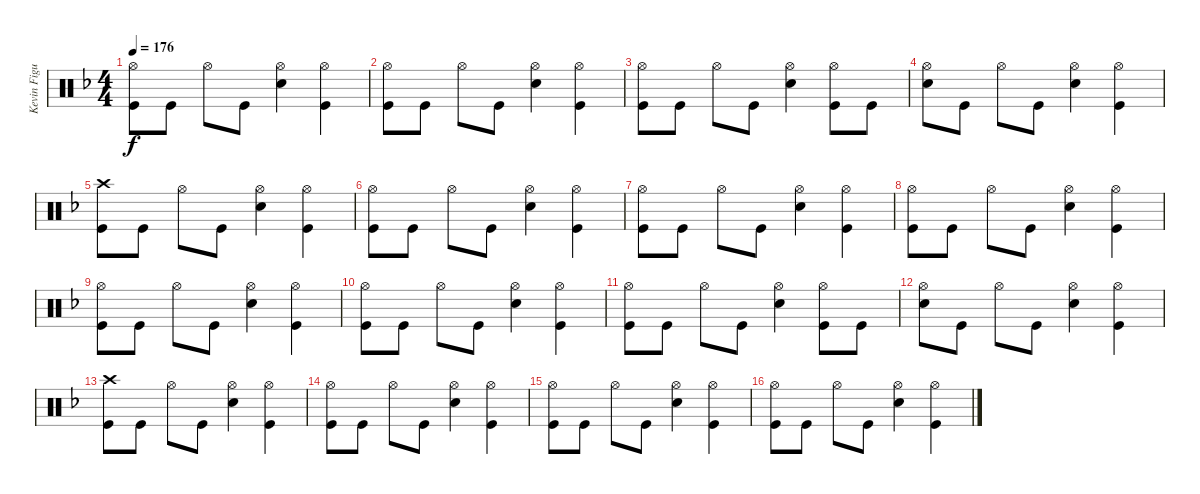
\track ("Kevin Figueiredo - Drums" "Kevin Figu") {instrument percussion}
\staff {score}
\articulation defaults
\ts (4 4)
\tempo 176
\clef neutral
\ks f
("Hi-Hat (open)" "Kick (hit)").8{dy f} "Kick (hit)".8 "Hi-Hat (open)".8 "Kick (hit)".8 ("Hi-Hat (open)" "Snare (hit) 2").4 ("Hi-Hat (open)" "Kick (hit)").4 |
("Hi-Hat (open)" "Kick (hit)").8 "Kick (hit)".8 "Hi-Hat (open)".8 "Kick (hit)".8 ("Hi-Hat (open)" "Snare (hit) 2").4 ("Hi-Hat (open)" "Kick (hit)").4 |
("Hi-Hat (open)" "Kick (hit)").8 "Kick (hit)".8 "Hi-Hat (open)".8 "Kick (hit)".8 ("Hi-Hat (open)" "Snare (hit) 2").4 ("Hi-Hat (open)" "Kick (hit)").8 "Kick (hit)".8 |
("Hi-Hat (open)" "Snare (hit) 2").8 "Kick (hit)".8 "Hi-Hat (open)".8 "Kick (hit)".8 ("Hi-Hat (open)" "Snare (hit) 2").4 ("Hi-Hat (open)" "Kick (hit)").4 |
("Crash high (hit)" "Kick (hit)").8 "Kick (hit)".8 "Hi-Hat (open)".8 "Kick (hit)".8 ("Hi-Hat (open)" "Snare (hit) 2").4 ("Hi-Hat (open)" "Kick (hit)").4 |
("Hi-Hat (open)" "Kick (hit)").8 "Kick (hit)".8 "Hi-Hat (open)".8 "Kick (hit)".8 ("Hi-Hat (open)" "Snare (hit) 2").4 ("Hi-Hat (open)" "Kick (hit)").4 |
("Hi-Hat (open)" "Kick (hit)").8 "Kick (hit)".8 "Hi-Hat (open)".8 "Kick (hit)".8 ("Hi-Hat (open)" "Snare (hit) 2").4 ("Hi-Hat (open)" "Kick (hit)").4 |
("Hi-Hat (open)" "Kick (hit)").8 "Kick (hit)".8 "Hi-Hat (open)".8 "Kick (hit)".8 ("Hi-Hat (open)" "Snare (hit) 2").4 ("Hi-Hat (open)" "Kick (hit)").4 |
("Hi-Hat (open)" "Kick (hit)").8 "Kick (hit)".8 "Hi-Hat (open)".8 "Kick (hit)".8 ("Hi-Hat (open)" "Snare (hit) 2").4 ("Hi-Hat (open)" "Kick (hit)").4 |
("Hi-Hat (open)" "Kick (hit)").8 "Kick (hit)".8 "Hi-Hat (open)".8 "Kick (hit)".8 ("Hi-Hat (open)" "Snare (hit) 2").4 ("Hi-Hat (open)" "Kick (hit)").4 |
("Hi-Hat (open)" "Kick (hit)").8 "Kick (hit)".8 "Hi-Hat (open)".8 "Kick (hit)".8 ("Hi-Hat (open)" "Snare (hit) 2").4 ("Hi-Hat (open)" "Kick (hit)").8 "Kick (hit)".8 |
("Hi-Hat (open)" "Snare (hit) 2").8 "Kick (hit)".8 "Hi-Hat (open)".8 "Kick (hit)".8 ("Hi-Hat (open)" "Snare (hit) 2").4 ("Hi-Hat (open)" "Kick (hit)").4 |
("Crash high (hit)" "Kick (hit)").8 "Kick (hit)".8 "Hi-Hat (open)".8 "Kick (hit)".8 ("Hi-Hat (open)" "Snare (hit) 2").4 ("Hi-Hat (open)" "Kick (hit)").4 |
("Hi-Hat (open)" "Kick (hit)").8 "Kick (hit)".8 "Hi-Hat (open)".8 "Kick (hit)".8 ("Hi-Hat (open)" "Snare (hit) 2").4 ("Hi-Hat (open)" "Kick (hit)").4 |
("Hi-Hat (open)" "Kick (hit)").8 "Kick (hit)".8 "Hi-Hat (open)".8 "Kick (hit)".8 ("Hi-Hat (open)" "Snare (hit) 2").4 ("Hi-Hat (open)" "Kick (hit)").4 |
("Hi-Hat (open)" "Kick (hit)").8 "Kick (hit)".8 "Hi-Hat (open)".8 "Kick (hit)".8 ("Hi-Hat (open)" "Snare (hit) 2").4 ("Hi-Hat (open)" "Kick (hit)").4
